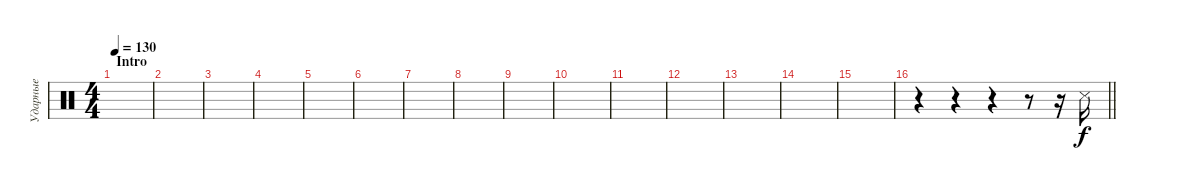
\track ("Ударные" "Ударные") {instrument percussion}
\staff {score}
\articulation defaults
\ts (4 4)
\section ("" "Intro")
\tempo 130
\clef neutral
\ks c
|
|
|
|
|
|
|
|
|
|
|
|
|
|
|
\barLineRight lightlight
r.4 r.4 r.4 r.8 r.16 "Snare (side stick) 3".16
